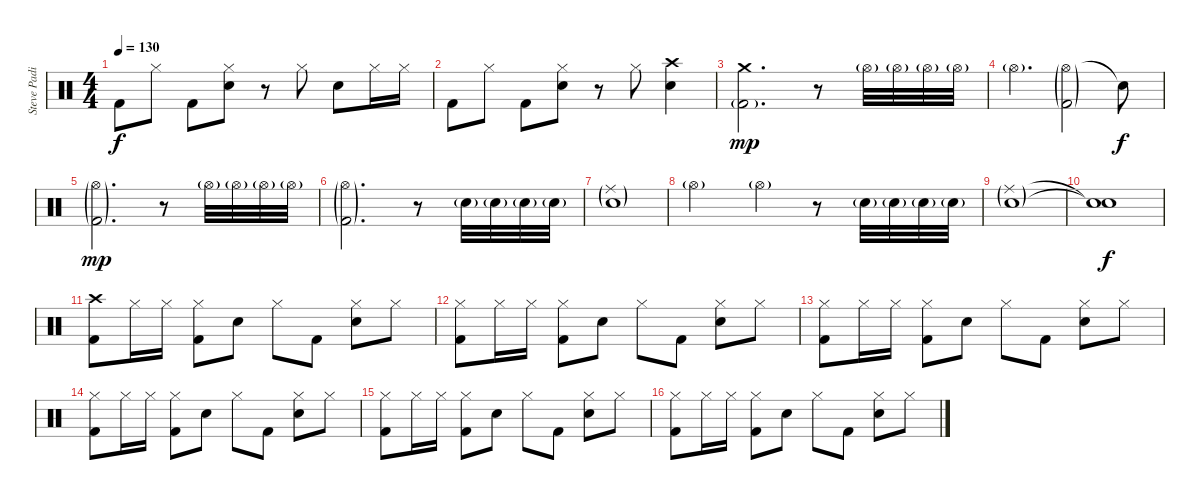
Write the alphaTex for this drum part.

\track ("Steve Padin" "Steve Padi") {instrument percussion}
\staff {score}
\articulation defaults
\ts (4 4)
\tempo 130
\clef neutral
\ks c "Kick (hit) 2".8{dy f} "Hi-Hat (closed)".8 "Kick (hit) 2".8
("Hi-Hat (closed)" "Electric Snare (hit)").8 r.8 "Hi-Hat (closed)".8 "Electric Snare (hit)".8 "Hi-Hat (closed)".16 "Hi-Hat (closed)".16 |
"Kick (hit) 2".8 "Hi-Hat (closed)".8 "Kick (hit) 2".8 ("Hi-Hat (closed)" "Electric Snare (hit)").8 r.8 "Hi-Hat (closed)".8 ("Crash high (hit)" "Electric Snare (hit)").4 |
("Crash medium (hit)" "Kick (hit) 2"{g}).2{d dy mp} r.8 "Hi-Hat (open)"{g}.32 "Hi-Hat (open)"{g}.32 "Hi-Hat (open)"{g}.32 "Hi-Hat (open)"{g}.32 |
"Hi-Hat (open)"{g}.4{d} ("Hi-Hat (open)"{g} "Kick (hit) 2"{g}).2 "Snare (hit)"{t}.8{dy f} |
("Hi-Hat (open)"{g} "Kick (hit) 2"{g}).2{d dy mp} r.8 "Hi-Hat (open)"{g}.32 "Hi-Hat (open)"{g}.32 "Hi-Hat (open)"{g}.32 "Hi-Hat (open)"{g}.32 |
("Hi-Hat (open)"{g} "Kick (hit) 2"{g}).2{d} r.8 "Electric Snare (hit)"{g}.32 "Electric Snare (hit)"{g}.32 "Electric Snare (hit)"{g}.32 "Electric Snare (hit)"{g}.32 |
("Ride (middle)"{g} "Electric Snare (hit)"{g}).1 |
"Hi-Hat (open)"{g}.2 "Hi-Hat (open)"{g}.4 r.8 "Electric Snare (hit)"{g}.32 "Electric Snare (hit)"{g}.32 "Electric Snare (hit)"{g}.32 "Electric Snare (hit)"{g}.32 |
("Ride (middle)"{g} "Electric Snare (hit)"{g}).1 |
("Snare (hit)"{t} "Snare (hit)"{t}).1{dy f} |
("Crash high (hit)" "Kick (hit) 2").8 "Hi-Hat (closed)".16 "Hi-Hat (closed)".16 ("Hi-Hat (closed)" "Kick (hit) 2").8 "Electric Snare (hit)".8 "Hi-Hat (closed)".8 "Kick (hit) 2".8 ("Hi-Hat (closed)" "Electric Snare (hit)").8 "Hi-Hat (closed)".8 |
("Hi-Hat (closed)" "Kick (hit) 2").8 "Hi-Hat (closed)".16 "Hi-Hat (closed)".16 ("Hi-Hat (closed)" "Kick (hit) 2").8 "Electric Snare (hit)".8 "Hi-Hat (closed)".8 "Kick (hit) 2".8 ("Hi-Hat (closed)" "Electric Snare (hit)").8 "Hi-Hat (closed)".8 |
("Hi-Hat (closed)" "Kick (hit) 2").8 "Hi-Hat (closed)".16 "Hi-Hat (closed)".16 ("Hi-Hat (closed)" "Kick (hit) 2").8 "Electric Snare (hit)".8 "Hi-Hat (closed)".8 "Kick (hit) 2".8 ("Hi-Hat (closed)" "Electric Snare (hit)").8 "Hi-Hat (closed)".8 |
("Hi-Hat (closed)" "Kick (hit) 2").8 "Hi-Hat (closed)".16 "Hi-Hat (closed)".16 ("Hi-Hat (closed)" "Kick (hit) 2").8 "Electric Snare (hit)".8 "Hi-Hat (closed)".8 "Kick (hit) 2".8 ("Hi-Hat (closed)" "Electric Snare (hit)").8 "Hi-Hat (closed)".8 |
("Hi-Hat (closed)" "Kick (hit) 2").8 "Hi-Hat (closed)".16 "Hi-Hat (closed)".16 ("Hi-Hat (closed)" "Kick (hit) 2").8 "Electric Snare (hit)".8 "Hi-Hat (closed)".8 "Kick (hit) 2".8 ("Hi-Hat (closed)" "Electric Snare (hit)").8 "Hi-Hat (closed)".8 |
("Hi-Hat (closed)" "Kick (hit) 2").8 "Hi-Hat (closed)".16 "Hi-Hat (closed)".16 ("Hi-Hat (closed)" "Kick (hit) 2").8 "Electric Snare (hit)".8 "Hi-Hat (closed)".8 "Kick (hit) 2".8 ("Hi-Hat (closed)" "Electric Snare (hit)").8 "Hi-Hat (closed)".8
